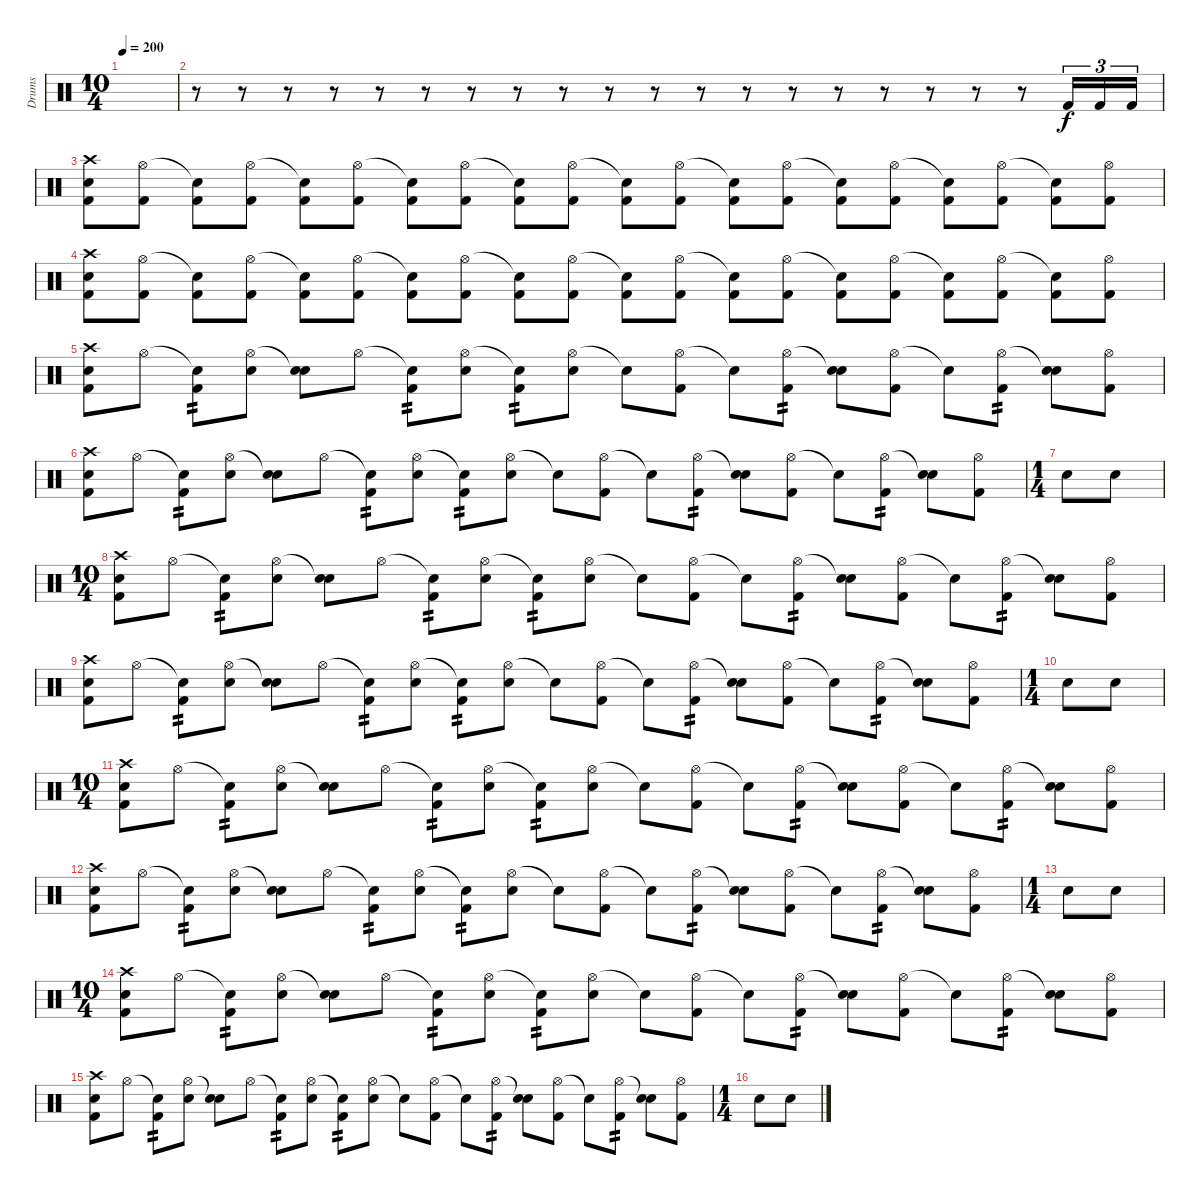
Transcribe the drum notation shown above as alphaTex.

\track ("Drums" "Drums") {instrument percussion}
\staff {score}
\articulation defaults
\ts (10 4)
\tempo 200
\clef neutral
\ks c
|
r.8 r.8 r.8 r.8 r.8 r.8 r.8 r.8 r.8 r.8 r.8 r.8 r.8 r.8 r.8 r.8 r.8 r.8 r.8 "Kick (hit) 2".16{tu (3 2)} "Kick (hit) 2".16{tu (3 2)} "Kick (hit) 2".16{tu (3 2)} |
("Crash high (hit)" "Snare (hit) 2" "Kick (hit) 2").8 ("Hi-Hat (open)" "Kick (hit) 2").8 ("Snare (hit)"{t} "Kick (hit) 2").8 ("Hi-Hat (open)" "Kick (hit) 2").8 ("Snare (hit)"{t} "Kick (hit) 2").8 ("Hi-Hat (open)" "Kick (hit) 2").8 ("Snare (hit)"{t} "Kick (hit) 2").8 ("Hi-Hat (open)" "Kick (hit) 2").8 ("Snare (hit)"{t} "Kick (hit) 2").8 ("Hi-Hat (open)" "Kick (hit) 2").8 ("Snare (hit)"{t} "Kick (hit) 2").8 ("Hi-Hat (open)" "Kick (hit) 2").8 ("Snare (hit)"{t} "Kick (hit) 2").8 ("Hi-Hat (open)" "Kick (hit) 2").8 ("Snare (hit)"{t} "Kick (hit) 2").8 ("Hi-Hat (open)" "Kick (hit) 2").8 ("Snare (hit)"{t} "Kick (hit) 2").8 ("Hi-Hat (open)" "Kick (hit) 2").8 ("Snare (hit)"{t} "Kick (hit) 2").8 ("Hi-Hat (open)" "Kick (hit) 2").8 |
("Crash high (hit)" "Snare (hit) 2" "Kick (hit) 2").8 ("Hi-Hat (open)" "Kick (hit) 2").8 ("Snare (hit)"{t} "Kick (hit) 2").8 ("Hi-Hat (open)" "Kick (hit) 2").8 ("Snare (hit)"{t} "Kick (hit) 2").8 ("Hi-Hat (open)" "Kick (hit) 2").8 ("Snare (hit)"{t} "Kick (hit) 2").8 ("Hi-Hat (open)" "Kick (hit) 2").8 ("Snare (hit)"{t} "Kick (hit) 2").8 ("Hi-Hat (open)" "Kick (hit) 2").8 ("Snare (hit)"{t} "Kick (hit) 2").8 ("Hi-Hat (open)" "Kick (hit) 2").8 ("Snare (hit)"{t} "Kick (hit) 2").8 ("Hi-Hat (open)" "Kick (hit) 2").8 ("Snare (hit)"{t} "Kick (hit) 2").8 ("Hi-Hat (open)" "Kick (hit) 2").8 ("Snare (hit)"{t} "Kick (hit) 2").8 ("Hi-Hat (open)" "Kick (hit) 2").8 ("Snare (hit)"{t} "Kick (hit) 2").8 ("Hi-Hat (open)" "Kick (hit) 2").8 |
("Crash high (hit)" "Snare (hit) 2" "Kick (hit) 2").8 "Hi-Hat (open)".8 ("Snare (hit)"{t} "Kick (hit) 2").8{tp 2} ("Hi-Hat (open)" "Snare (hit) 2").8 ("Snare (hit)"{t} "Snare (hit) 2").8 "Hi-Hat (open)".8 ("Snare (hit)"{t} "Kick (hit) 2").8{tp 2} ("Hi-Hat (open)" "Snare (hit) 2").8 ("Snare (hit)"{t} "Kick (hit) 2").8{tp 2} ("Hi-Hat (open)" "Snare (hit) 2").8 "Snare (hit)"{t}.8 ("Hi-Hat (open)" "Kick (hit) 2").8 "Snare (hit)"{t}.8 ("Hi-Hat (open)" "Kick (hit) 2").8{tp 2} ("Snare (hit)"{t} "Snare (hit) 2").8 ("Hi-Hat (open)" "Kick (hit) 2").8 "Snare (hit)"{t}.8 ("Hi-Hat (open)" "Kick (hit) 2").8{tp 2} ("Snare (hit)"{t} "Snare (hit) 2").8 ("Hi-Hat (open)" "Kick (hit) 2").8 |
("Crash high (hit)" "Snare (hit) 2" "Kick (hit) 2").8 "Hi-Hat (open)".8 ("Snare (hit)"{t} "Kick (hit) 2").8{tp 2} ("Hi-Hat (open)" "Snare (hit) 2").8 ("Snare (hit)"{t} "Snare (hit) 2").8 "Hi-Hat (open)".8 ("Snare (hit)"{t} "Kick (hit) 2").8{tp 2} ("Hi-Hat (open)" "Snare (hit) 2").8 ("Snare (hit)"{t} "Kick (hit) 2").8{tp 2} ("Hi-Hat (open)" "Snare (hit) 2").8 "Snare (hit)"{t}.8 ("Hi-Hat (open)" "Kick (hit) 2").8 "Snare (hit)"{t}.8 ("Hi-Hat (open)" "Kick (hit) 2").8{tp 2} ("Snare (hit)"{t} "Snare (hit) 2").8 ("Hi-Hat (open)" "Kick (hit) 2").8 "Snare (hit)"{t}.8 ("Hi-Hat (open)" "Kick (hit) 2").8{tp 2} ("Snare (hit)"{t} "Snare (hit) 2").8 ("Hi-Hat (open)" "Kick (hit) 2").8 |
\ts (1 4)
"Snare (hit) 2".8 "Snare (hit) 2".8 |
\ts (10 4)
("Crash high (hit)" "Snare (hit) 2" "Kick (hit) 2").8 "Hi-Hat (open)".8 ("Snare (hit)"{t} "Kick (hit) 2").8{tp 2} ("Hi-Hat (open)" "Snare (hit) 2").8 ("Snare (hit)"{t} "Snare (hit) 2").8 "Hi-Hat (open)".8 ("Snare (hit)"{t} "Kick (hit) 2").8{tp 2} ("Hi-Hat (open)" "Snare (hit) 2").8 ("Snare (hit)"{t} "Kick (hit) 2").8{tp 2} ("Hi-Hat (open)" "Snare (hit) 2").8 "Snare (hit)"{t}.8 ("Hi-Hat (open)" "Kick (hit) 2").8 "Snare (hit)"{t}.8 ("Hi-Hat (open)" "Kick (hit) 2").8{tp 2} ("Snare (hit)"{t} "Snare (hit) 2").8 ("Hi-Hat (open)" "Kick (hit) 2").8 "Snare (hit)"{t}.8 ("Hi-Hat (open)" "Kick (hit) 2").8{tp 2} ("Snare (hit)"{t} "Snare (hit) 2").8 ("Hi-Hat (open)" "Kick (hit) 2").8 |
("Crash high (hit)" "Snare (hit) 2" "Kick (hit) 2").8 "Hi-Hat (open)".8 ("Snare (hit)"{t} "Kick (hit) 2").8{tp 2} ("Hi-Hat (open)" "Snare (hit) 2").8 ("Snare (hit)"{t} "Snare (hit) 2").8 "Hi-Hat (open)".8 ("Snare (hit)"{t} "Kick (hit) 2").8{tp 2} ("Hi-Hat (open)" "Snare (hit) 2").8 ("Snare (hit)"{t} "Kick (hit) 2").8{tp 2} ("Hi-Hat (open)" "Snare (hit) 2").8 "Snare (hit)"{t}.8 ("Hi-Hat (open)" "Kick (hit) 2").8 "Snare (hit)"{t}.8 ("Hi-Hat (open)" "Kick (hit) 2").8{tp 2} ("Snare (hit)"{t} "Snare (hit) 2").8 ("Hi-Hat (open)" "Kick (hit) 2").8 "Snare (hit)"{t}.8 ("Hi-Hat (open)" "Kick (hit) 2").8{tp 2} ("Snare (hit)"{t} "Snare (hit) 2").8 ("Hi-Hat (open)" "Kick (hit) 2").8 |
\ts (1 4)
"Snare (hit) 2".8 "Snare (hit) 2".8 |
\ts (10 4)
("Crash high (hit)" "Snare (hit) 2" "Kick (hit) 2").8 "Hi-Hat (open)".8 ("Snare (hit)"{t} "Kick (hit) 2").8{tp 2} ("Hi-Hat (open)" "Snare (hit) 2").8 ("Snare (hit)"{t} "Snare (hit) 2").8 "Hi-Hat (open)".8 ("Snare (hit)"{t} "Kick (hit) 2").8{tp 2} ("Hi-Hat (open)" "Snare (hit) 2").8 ("Snare (hit)"{t} "Kick (hit) 2").8{tp 2} ("Hi-Hat (open)" "Snare (hit) 2").8 "Snare (hit)"{t}.8 ("Hi-Hat (open)" "Kick (hit) 2").8 "Snare (hit)"{t}.8 ("Hi-Hat (open)" "Kick (hit) 2").8{tp 2} ("Snare (hit)"{t} "Snare (hit) 2").8 ("Hi-Hat (open)" "Kick (hit) 2").8 "Snare (hit)"{t}.8 ("Hi-Hat (open)" "Kick (hit) 2").8{tp 2} ("Snare (hit)"{t} "Snare (hit) 2").8 ("Hi-Hat (open)" "Kick (hit) 2").8 |
("Crash high (hit)" "Snare (hit) 2" "Kick (hit) 2").8 "Hi-Hat (open)".8 ("Snare (hit)"{t} "Kick (hit) 2").8{tp 2} ("Hi-Hat (open)" "Snare (hit) 2").8 ("Snare (hit)"{t} "Snare (hit) 2").8 "Hi-Hat (open)".8 ("Snare (hit)"{t} "Kick (hit) 2").8{tp 2} ("Hi-Hat (open)" "Snare (hit) 2").8 ("Snare (hit)"{t} "Kick (hit) 2").8{tp 2} ("Hi-Hat (open)" "Snare (hit) 2").8 "Snare (hit)"{t}.8 ("Hi-Hat (open)" "Kick (hit) 2").8 "Snare (hit)"{t}.8 ("Hi-Hat (open)" "Kick (hit) 2").8{tp 2} ("Snare (hit)"{t} "Snare (hit) 2").8 ("Hi-Hat (open)" "Kick (hit) 2").8 "Snare (hit)"{t}.8 ("Hi-Hat (open)" "Kick (hit) 2").8{tp 2} ("Snare (hit)"{t} "Snare (hit) 2").8 ("Hi-Hat (open)" "Kick (hit) 2").8 |
\ts (1 4)
"Snare (hit) 2".8 "Snare (hit) 2".8 |
\ts (10 4)
("Crash high (hit)" "Snare (hit) 2" "Kick (hit) 2").8 "Hi-Hat (open)".8 ("Snare (hit)"{t} "Kick (hit) 2").8{tp 2} ("Hi-Hat (open)" "Snare (hit) 2").8 ("Snare (hit)"{t} "Snare (hit) 2").8 "Hi-Hat (open)".8 ("Snare (hit)"{t} "Kick (hit) 2").8{tp 2} ("Hi-Hat (open)" "Snare (hit) 2").8 ("Snare (hit)"{t} "Kick (hit) 2").8{tp 2} ("Hi-Hat (open)" "Snare (hit) 2").8 "Snare (hit)"{t}.8 ("Hi-Hat (open)" "Kick (hit) 2").8 "Snare (hit)"{t}.8 ("Hi-Hat (open)" "Kick (hit) 2").8{tp 2} ("Snare (hit)"{t} "Snare (hit) 2").8 ("Hi-Hat (open)" "Kick (hit) 2").8 "Snare (hit)"{t}.8 ("Hi-Hat (open)" "Kick (hit) 2").8{tp 2} ("Snare (hit)"{t} "Snare (hit) 2").8 ("Hi-Hat (open)" "Kick (hit) 2").8 |
("Crash high (hit)" "Snare (hit) 2" "Kick (hit) 2").8 "Hi-Hat (open)".8 ("Snare (hit)"{t} "Kick (hit) 2").8{tp 2} ("Hi-Hat (open)" "Snare (hit) 2").8 ("Snare (hit)"{t} "Snare (hit) 2").8 "Hi-Hat (open)".8 ("Snare (hit)"{t} "Kick (hit) 2").8{tp 2} ("Hi-Hat (open)" "Snare (hit) 2").8 ("Snare (hit)"{t} "Kick (hit) 2").8{tp 2} ("Hi-Hat (open)" "Snare (hit) 2").8 "Snare (hit)"{t}.8 ("Hi-Hat (open)" "Kick (hit) 2").8 "Snare (hit)"{t}.8 ("Hi-Hat (open)" "Kick (hit) 2").8{tp 2} ("Snare (hit)"{t} "Snare (hit) 2").8 ("Hi-Hat (open)" "Kick (hit) 2").8 "Snare (hit)"{t}.8 ("Hi-Hat (open)" "Kick (hit) 2").8{tp 2} ("Snare (hit)"{t} "Snare (hit) 2").8 ("Hi-Hat (open)" "Kick (hit) 2").8 |
\ts (1 4)
"Snare (hit) 2".8 "Snare (hit) 2".8
